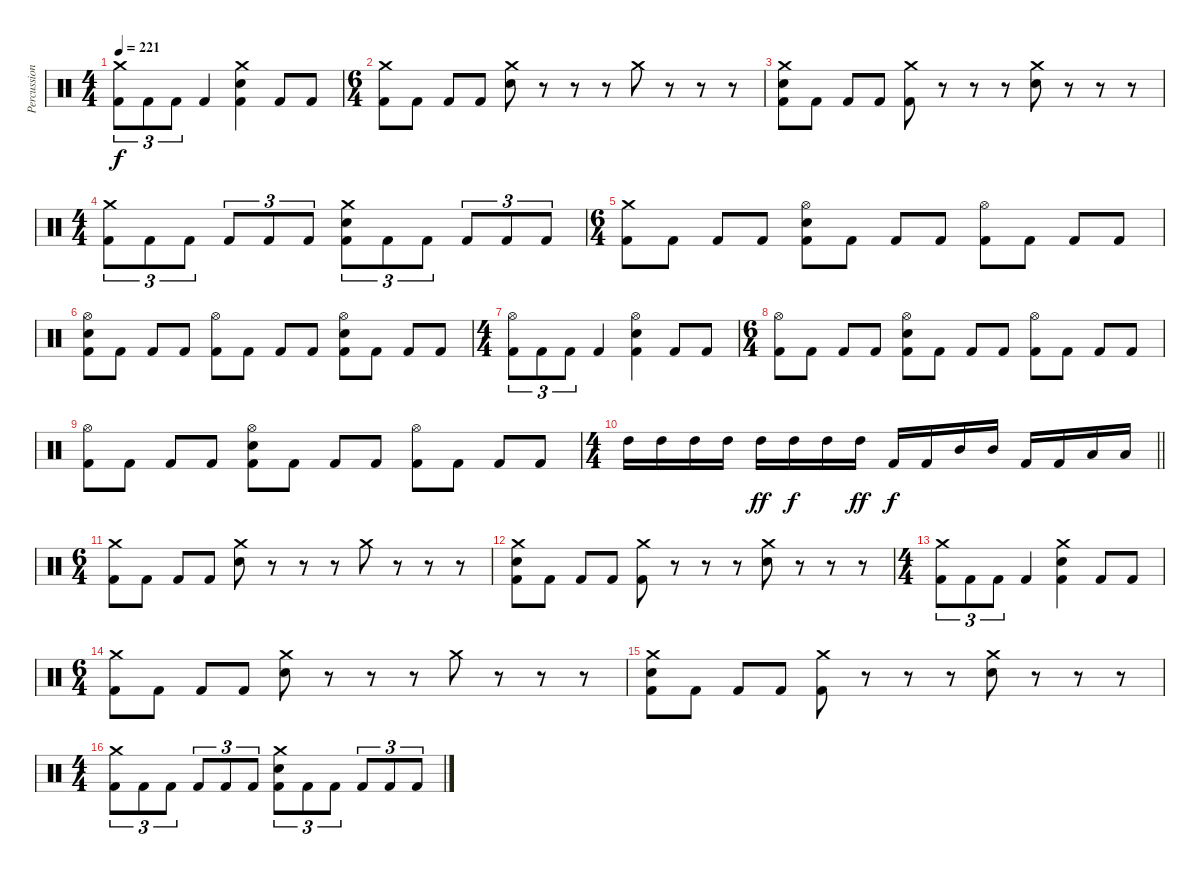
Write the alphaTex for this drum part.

\track ("Percussion" "Percussion") {instrument percussion}
\staff {score}
\articulation defaults
\ts (4 4)
\tempo 221
\clef neutral
\ks c
("Crash medium (hit)" "Kick (hit) 2").8{tu (3 2) dy f} "Kick (hit) 2".8{tu (3 2)} "Kick (hit) 2".8{tu (3 2)} "Kick (hit) 2".4 ("Crash medium (hit)" "Snare (hit) 2" "Kick (hit) 2").4 "Kick (hit) 2".8 "Kick (hit) 2".8 |
\ts (6 4)
("Crash medium (hit)" "Kick (hit) 2").8 "Kick (hit) 2".8 "Kick (hit) 2".8 "Kick (hit) 2".8 ("Crash medium (hit)" "Snare (hit) 2").8 r.8 r.8 r.8 "Crash medium (hit)".8 r.8 r.8 r.8 |
("Crash medium (hit)" "Snare (hit) 2" "Kick (hit) 2").8 "Kick (hit) 2".8 "Kick (hit) 2".8 "Kick (hit) 2".8 ("Crash medium (hit)" "Kick (hit) 2").8 r.8 r.8 r.8 ("Crash medium (hit)" "Snare (hit) 2").8 r.8 r.8 r.8 |
\ts (4 4)
("Crash medium (hit)" "Kick (hit) 2").8{tu (3 2)} "Kick (hit) 2".8{tu (3 2)} "Kick (hit) 2".8{tu (3 2)} "Kick (hit) 2".8{tu (3 2)} "Kick (hit) 2".8{tu (3 2)} "Kick (hit) 2".8{tu (3 2)} ("Crash medium (hit)" "Snare (hit) 2" "Kick (hit) 2").8{tu (3 2)} "Kick (hit) 2".8{tu (3 2)} "Kick (hit) 2".8{tu (3 2)} "Kick (hit) 2".8{tu (3 2)} "Kick (hit) 2".8{tu (3 2)} "Kick (hit) 2".8{tu (3 2)} |
\ts (6 4)
("Crash medium (hit)" "Kick (hit) 2").8 "Kick (hit) 2".8 "Kick (hit) 2".8 "Kick (hit) 2".8 ("Hi-Hat (open)" "Snare (hit) 2" "Kick (hit) 2").8 "Kick (hit) 2".8 "Kick (hit) 2".8 "Kick (hit) 2".8 ("Hi-Hat (open)" "Kick (hit) 2").8 "Kick (hit) 2".8 "Kick (hit) 2".8 "Kick (hit) 2".8 |
("Hi-Hat (open)" "Snare (hit) 2" "Kick (hit) 2").8 "Kick (hit) 2".8 "Kick (hit) 2".8 "Kick (hit) 2".8 ("Hi-Hat (open)" "Kick (hit) 2").8 "Kick (hit) 2".8 "Kick (hit) 2".8 "Kick (hit) 2".8 ("Hi-Hat (open)" "Snare (hit) 2" "Kick (hit) 2").8 "Kick (hit) 2".8 "Kick (hit) 2".8 "Kick (hit) 2".8 |
\ts (4 4)
("Hi-Hat (open)" "Kick (hit) 2").8{tu (3 2)} "Kick (hit) 2".8{tu (3 2)} "Kick (hit) 2".8{tu (3 2)} "Kick (hit) 2".4 ("Hi-Hat (open)" "Snare (hit) 2" "Kick (hit) 2").4 "Kick (hit) 2".8 "Kick (hit) 2".8 |
\ts (6 4)
("Hi-Hat (open)" "Kick (hit) 2").8 "Kick (hit) 2".8 "Kick (hit) 2".8 "Kick (hit) 2".8 ("Hi-Hat (open)" "Snare (hit) 2" "Kick (hit) 2").8 "Kick (hit) 2".8 "Kick (hit) 2".8 "Kick (hit) 2".8 ("Hi-Hat (open)" "Kick (hit) 2").8 "Kick (hit) 2".8 "Kick (hit) 2".8 "Kick (hit) 2".8 |
("Hi-Hat (open)" "Kick (hit) 2").8 "Kick (hit) 2".8 "Kick (hit) 2".8 "Kick (hit) 2".8 ("Hi-Hat (open)" "Snare (hit) 2" "Kick (hit) 2").8 "Kick (hit) 2".8 "Kick (hit) 2".8 "Kick (hit) 2".8 ("Hi-Hat (open)" "Kick (hit) 2").8 "Kick (hit) 2".8 "Kick (hit) 2".8 "Kick (hit) 2".8 |
\ts (4 4)
\barLineRight lightlight "High Tom (hit)".16 "High Tom (hit)".16 "High Tom (hit)".16 "High Tom (hit)".16 "High Tom (hit)".16{dy ff} "High Tom (hit)".16{dy f} "High Tom (hit)".16 "High Tom (hit)".16{dy ff} "Kick (hit) 2".16{dy f} "Kick (hit) 2".16 "Mid Tom (hit)".16 "Mid Tom (hit)".16 "Kick (hit) 2".16 "Kick (hit) 2".16 "Low Tom (hit)".16 "Low Tom (hit)".16
|
\ts (6 4)
("Crash medium (hit)" "Kick (hit) 2").8 "Kick (hit) 2".8 "Kick (hit) 2".8 "Kick (hit) 2".8 ("Crash medium (hit)" "Snare (hit) 2").8 r.8 r.8 r.8 "Crash medium (hit)".8 r.8 r.8 r.8 |
("Crash medium (hit)" "Snare (hit) 2" "Kick (hit) 2").8 "Kick (hit) 2".8 "Kick (hit) 2".8 "Kick (hit) 2".8 ("Crash medium (hit)" "Kick (hit) 2").8 r.8 r.8 r.8 ("Crash medium (hit)" "Snare (hit) 2").8 r.8 r.8 r.8 |
\ts (4 4)
("Crash medium (hit)" "Kick (hit) 2").8{tu (3 2)} "Kick (hit) 2".8{tu (3 2)} "Kick (hit) 2".8{tu (3 2)} "Kick (hit) 2".4 ("Crash medium (hit)" "Snare (hit) 2" "Kick (hit) 2").4 "Kick (hit) 2".8 "Kick (hit) 2".8 |
\ts (6 4)
("Crash medium (hit)" "Kick (hit) 2").8 "Kick (hit) 2".8 "Kick (hit) 2".8 "Kick (hit) 2".8 ("Crash medium (hit)" "Snare (hit) 2").8 r.8 r.8 r.8 "Crash medium (hit)".8 r.8 r.8 r.8 |
("Crash medium (hit)" "Snare (hit) 2" "Kick (hit) 2").8 "Kick (hit) 2".8 "Kick (hit) 2".8 "Kick (hit) 2".8 ("Crash medium (hit)" "Kick (hit) 2").8 r.8 r.8 r.8 ("Crash medium (hit)" "Snare (hit) 2").8 r.8 r.8 r.8 |
\ts (4 4)
("Crash medium (hit)" "Kick (hit) 2").8{tu (3 2)} "Kick (hit) 2".8{tu (3 2)} "Kick (hit) 2".8{tu (3 2)} "Kick (hit) 2".8{tu (3 2)} "Kick (hit) 2".8{tu (3 2)} "Kick (hit) 2".8{tu (3 2)} ("Crash medium (hit)" "Snare (hit) 2" "Kick (hit) 2").8{tu (3 2)} "Kick (hit) 2".8{tu (3 2)} "Kick (hit) 2".8{tu (3 2)} "Kick (hit) 2".8{tu (3 2)} "Kick (hit) 2".8{tu (3 2)} "Kick (hit) 2".8{tu (3 2)}
